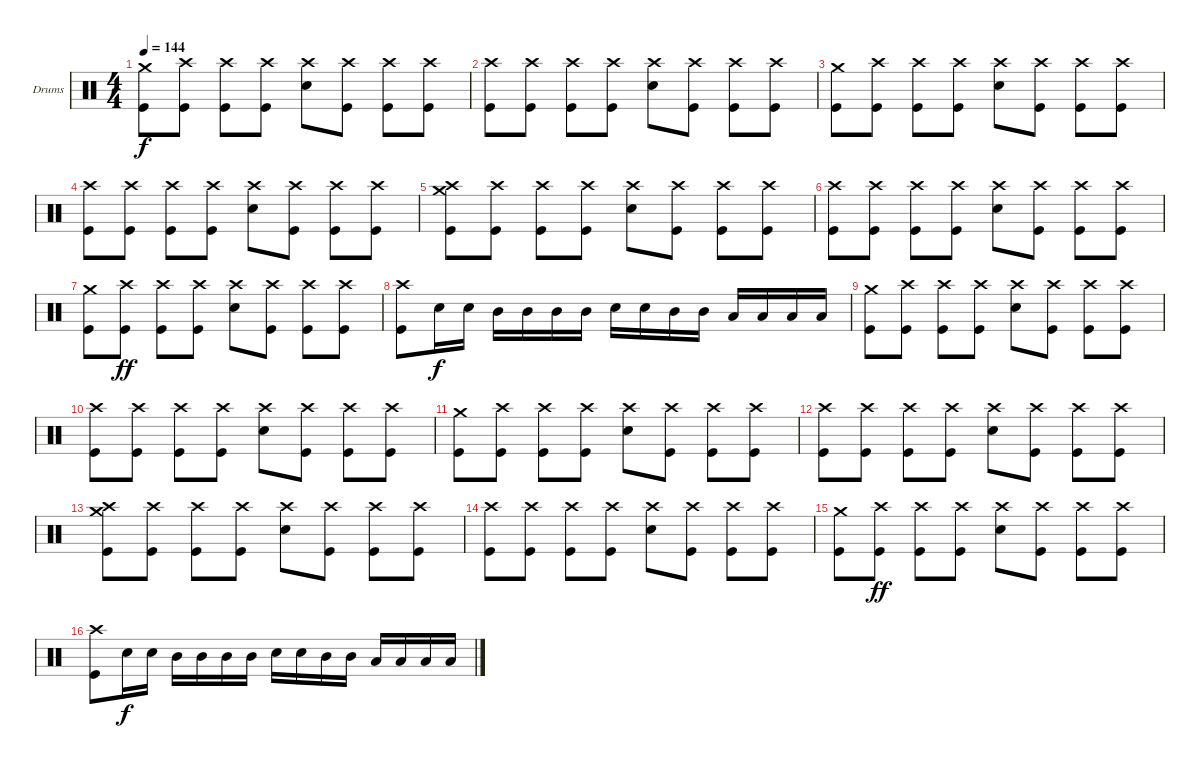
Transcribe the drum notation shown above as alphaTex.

\bracketExtendMode groupsimilarinstruments
\firstSystemTrackNameOrientation horizontal
\otherSystemsTrackNameOrientation horizontal
\track ("Drumkit" "Drums") {instrument percussion}
\staff {score}
\articulation defaults
\ts (4 4)
\tempo 144
\clef neutral
\ks c
("Crash medium (hit)" "Kick (hit)").8{dy f} ("Crash high (hit)" "Kick (hit)").8 ("Crash high (hit)" "Kick (hit)").8 ("Crash high (hit)" "Kick (hit)").8 ("Crash high (hit)" "Snare (hit) 2").8 ("Crash high (hit)" "Kick (hit)").8 ("Crash high (hit)" "Kick (hit)").8 ("Crash high (hit)" "Kick (hit)").8 |
("Crash high (hit)" "Kick (hit)").8 ("Crash high (hit)" "Kick (hit)").8 ("Crash high (hit)" "Kick (hit)").8 ("Crash high (hit)" "Kick (hit)").8 ("Crash high (hit)" "Snare (hit) 2").8 ("Crash high (hit)" "Kick (hit)").8 ("Crash high (hit)" "Kick (hit)").8 ("Crash high (hit)" "Kick (hit)").8 |
("Crash medium (hit)" "Kick (hit)").8 ("Crash high (hit)" "Kick (hit)").8 ("Crash high (hit)" "Kick (hit)").8 ("Crash high (hit)" "Kick (hit)").8 ("Crash high (hit)" "Snare (hit) 2").8 ("Crash high (hit)" "Kick (hit)").8 ("Crash high (hit)" "Kick (hit)").8 ("Crash high (hit)" "Kick (hit)").8 |
("Crash high (hit)" "Kick (hit)").8 ("Crash high (hit)" "Kick (hit)").8 ("Crash high (hit)" "Kick (hit)").8 ("Crash high (hit)" "Kick (hit)").8 ("Crash high (hit)" "Snare (hit) 2").8 ("Crash high (hit)" "Kick (hit)").8 ("Crash high (hit)" "Kick (hit)").8 ("Crash high (hit)" "Kick (hit)").8 |
("Crash medium (hit)" "Crash high (hit)" "Kick (hit)").8 ("Crash high (hit)" "Kick (hit)").8 ("Crash high (hit)" "Kick (hit)").8 ("Crash high (hit)" "Kick (hit)").8 ("Crash high (hit)" "Snare (hit) 2").8 ("Crash high (hit)" "Kick (hit)").8 ("Crash high (hit)" "Kick (hit)").8 ("Crash high (hit)" "Kick (hit)").8 |
("Crash high (hit)" "Kick (hit)").8 ("Crash high (hit)" "Kick (hit)").8 ("Crash high (hit)" "Kick (hit)").8 ("Crash high (hit)" "Kick (hit)").8 ("Crash high (hit)" "Snare (hit) 2").8 ("Crash high (hit)" "Kick (hit)").8 ("Crash high (hit)" "Kick (hit)").8 ("Crash high (hit)" "Kick (hit)").8 |
("Crash medium (hit)" "Kick (hit)").8 ("Crash high (hit)" "Kick (hit)").8{dy ff} ("Crash high (hit)" "Kick (hit)").8 ("Crash high (hit)" "Kick (hit)").8 ("Crash high (hit)" "Snare (hit) 2").8 ("Crash high (hit)" "Kick (hit)").8 ("Crash high (hit)" "Kick (hit)").8 ("Crash high (hit)" "Kick (hit)").8 |
("Crash high (hit)" "Kick (hit)").8 "Snare (hit) 2".16{dy f} "Snare (hit) 2".16 "Mid Tom (hit)".16 "Mid Tom (hit)".16 "Mid Tom (hit)".16 "Mid Tom (hit)".16 "Snare (hit) 2".16 "Snare (hit) 2".16 "Mid Tom (hit)".16 "Mid Tom (hit)".16 "Low Tom (hit)".16 "Low Tom (hit)".16 "Low Tom (hit)".16 "Low Tom (hit)".16 |
("Crash medium (hit)" "Kick (hit)").8 ("Crash high (hit)" "Kick (hit)").8 ("Crash high (hit)" "Kick (hit)").8 ("Crash high (hit)" "Kick (hit)").8 ("Crash high (hit)" "Snare (hit) 2").8 ("Crash high (hit)" "Kick (hit)").8 ("Crash high (hit)" "Kick (hit)").8 ("Crash high (hit)" "Kick (hit)").8 |
("Crash high (hit)" "Kick (hit)").8 ("Crash high (hit)" "Kick (hit)").8 ("Crash high (hit)" "Kick (hit)").8 ("Crash high (hit)" "Kick (hit)").8 ("Crash high (hit)" "Snare (hit) 2").8 ("Crash high (hit)" "Kick (hit)").8 ("Crash high (hit)" "Kick (hit)").8 ("Crash high (hit)" "Kick (hit)").8 |
("Crash medium (hit)" "Kick (hit)").8 ("Crash high (hit)" "Kick (hit)").8 ("Crash high (hit)" "Kick (hit)").8 ("Crash high (hit)" "Kick (hit)").8 ("Crash high (hit)" "Snare (hit) 2").8 ("Crash high (hit)" "Kick (hit)").8 ("Crash high (hit)" "Kick (hit)").8 ("Crash high (hit)" "Kick (hit)").8 |
("Crash high (hit)" "Kick (hit)").8 ("Crash high (hit)" "Kick (hit)").8 ("Crash high (hit)" "Kick (hit)").8 ("Crash high (hit)" "Kick (hit)").8 ("Crash high (hit)" "Snare (hit) 2").8 ("Crash high (hit)" "Kick (hit)").8 ("Crash high (hit)" "Kick (hit)").8 ("Crash high (hit)" "Kick (hit)").8 |
("Crash medium (hit)" "Crash high (hit)" "Kick (hit)").8 ("Crash high (hit)" "Kick (hit)").8 ("Crash high (hit)" "Kick (hit)").8 ("Crash high (hit)" "Kick (hit)").8 ("Crash high (hit)" "Snare (hit) 2").8 ("Crash high (hit)" "Kick (hit)").8 ("Crash high (hit)" "Kick (hit)").8 ("Crash high (hit)" "Kick (hit)").8 |
("Crash high (hit)" "Kick (hit)").8 ("Crash high (hit)" "Kick (hit)").8 ("Crash high (hit)" "Kick (hit)").8 ("Crash high (hit)" "Kick (hit)").8 ("Crash high (hit)" "Snare (hit) 2").8 ("Crash high (hit)" "Kick (hit)").8 ("Crash high (hit)" "Kick (hit)").8 ("Crash high (hit)" "Kick (hit)").8 |
("Crash medium (hit)" "Kick (hit)").8 ("Crash high (hit)" "Kick (hit)").8{dy ff} ("Crash high (hit)" "Kick (hit)").8 ("Crash high (hit)" "Kick (hit)").8 ("Crash high (hit)" "Snare (hit) 2").8 ("Crash high (hit)" "Kick (hit)").8 ("Crash high (hit)" "Kick (hit)").8 ("Crash high (hit)" "Kick (hit)").8 |
("Crash high (hit)" "Kick (hit)").8 "Snare (hit) 2".16{dy f} "Snare (hit) 2".16 "Mid Tom (hit)".16 "Mid Tom (hit)".16 "Mid Tom (hit)".16 "Mid Tom (hit)".16 "Snare (hit) 2".16 "Snare (hit) 2".16 "Mid Tom (hit)".16 "Mid Tom (hit)".16 "Low Tom (hit)".16 "Low Tom (hit)".16 "Low Tom (hit)".16 "Low Tom (hit)".16
